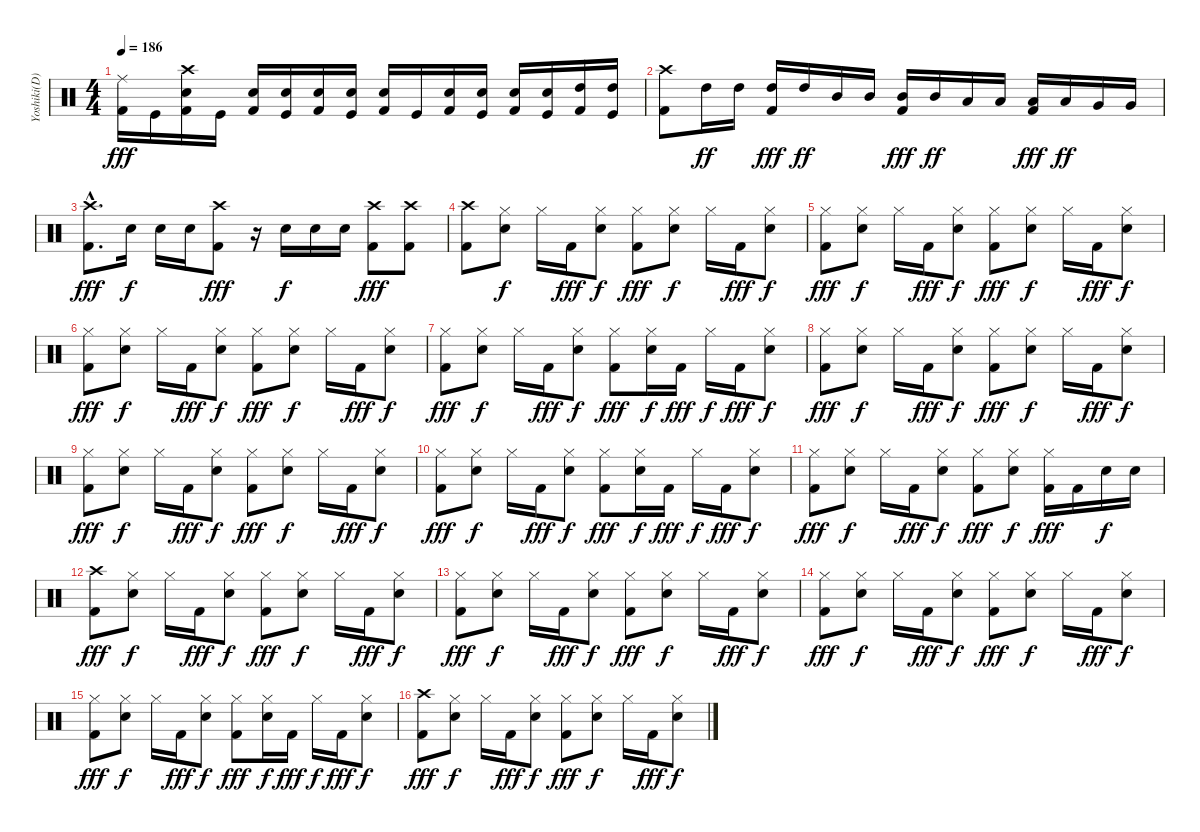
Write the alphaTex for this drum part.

\track ("Yoshiki(D)" "Yoshiki(D)") {instrument percussion}
\staff {score}
\articulation defaults
\ts (4 4)
\tempo 186
\clef neutral
\ks c
("Ride (middle)" "Kick (hit) 2").16{dy fff} "Kick (hit)".16 ("Crash high (hit)" "Electric Snare (hit)" "Kick (hit) 2").16 "Kick (hit)".16 ("Electric Snare (hit)" "Kick (hit) 2").16 ("Electric Snare (hit)" "Kick (hit)").16 ("Electric Snare (hit)" "Kick (hit) 2").16 ("Electric Snare (hit)" "Kick (hit)").16 ("Electric Snare (hit)" "Kick (hit) 2").16 "Kick (hit)".16 ("Electric Snare (hit)" "Kick (hit) 2").16 ("Electric Snare (hit)" "Kick (hit)").16 ("Electric Snare (hit)" "Kick (hit) 2").16 ("Electric Snare (hit)" "Kick (hit)").16 ("High Tom (hit)" "Kick (hit) 2").16 ("High Tom (hit)" "Kick (hit)").16 |
("Crash high (hit)" "Kick (hit) 2").8 "High Tom (hit)".16{dy ff} "High Tom (hit)".16 ("High Tom (hit)" "Kick (hit) 2").16{dy fff} "High Tom (hit)".16{dy ff} "Mid Tom (hit)".16 "Mid Tom (hit)".16 ("Mid Tom (hit)" "Kick (hit) 2").16{dy fff} "Mid Tom (hit)".16{dy ff} "Low Tom (hit)".16 "Low Tom (hit)".16 ("Low Tom (hit)" "Kick (hit) 2").16{dy fff} "Low Tom (hit)".16{dy ff} "Very Low Tom (hit)".16 "Very Low Tom (hit)".16 |
("Crash high (hit)"{hac} "Kick (hit) 2"{hac}).8{d dy fff} "Electric Snare (hit)".16{dy f} "Electric Snare (hit)".16 "Electric Snare (hit)".16 ("Crash high (hit)" "Kick (hit) 2").8{dy fff} r.16 "Electric Snare (hit)".16{dy f} "Electric Snare (hit)".16 "Electric Snare (hit)".16 ("Crash high (hit)" "Kick (hit) 2").8{dy fff} ("Crash high (hit)" "Kick (hit) 2").8 |
("Crash high (hit)" "Kick (hit) 2").8 ("Hi-Hat (closed)" "Electric Snare (hit)").8{dy f} "Hi-Hat (closed)".16 "Kick (hit) 2".16{dy fff} ("Hi-Hat (closed)" "Electric Snare (hit)").8{dy f} ("Hi-Hat (closed)" "Kick (hit) 2").8{dy fff} ("Hi-Hat (closed)" "Electric Snare (hit)").8{dy f} "Hi-Hat (closed)".16 "Kick (hit) 2".16{dy fff} ("Hi-Hat (closed)" "Electric Snare (hit)").8{dy f} |
("Hi-Hat (closed)" "Kick (hit) 2").8{dy fff} ("Hi-Hat (closed)" "Electric Snare (hit)").8{dy f} "Hi-Hat (closed)".16 "Kick (hit) 2".16{dy fff} ("Hi-Hat (closed)" "Electric Snare (hit)").8{dy f} ("Hi-Hat (closed)" "Kick (hit) 2").8{dy fff} ("Hi-Hat (closed)" "Electric Snare (hit)").8{dy f} "Hi-Hat (closed)".16 "Kick (hit) 2".16{dy fff} ("Hi-Hat (closed)" "Electric Snare (hit)").8{dy f} |
("Hi-Hat (closed)" "Kick (hit) 2").8{dy fff} ("Hi-Hat (closed)" "Electric Snare (hit)").8{dy f} "Hi-Hat (closed)".16 "Kick (hit) 2".16{dy fff} ("Hi-Hat (closed)" "Electric Snare (hit)").8{dy f} ("Hi-Hat (closed)" "Kick (hit) 2").8{dy fff} ("Hi-Hat (closed)" "Electric Snare (hit)").8{dy f} "Hi-Hat (closed)".16 "Kick (hit) 2".16{dy fff} ("Hi-Hat (closed)" "Electric Snare (hit)").8{dy f} |
("Hi-Hat (closed)" "Kick (hit) 2").8{dy fff} ("Hi-Hat (closed)" "Electric Snare (hit)").8{dy f} "Hi-Hat (closed)".16 "Kick (hit) 2".16{dy fff} ("Hi-Hat (closed)" "Electric Snare (hit)").8{dy f} ("Hi-Hat (closed)" "Kick (hit) 2").8{dy fff} ("Hi-Hat (closed)" "Electric Snare (hit)").16{dy f} "Kick (hit) 2".16{dy fff} "Hi-Hat (closed)".16{dy f} "Kick (hit) 2".16{dy fff} ("Hi-Hat (closed)" "Electric Snare (hit)").8{dy f} |
("Hi-Hat (closed)" "Kick (hit) 2").8{dy fff} ("Hi-Hat (closed)" "Electric Snare (hit)").8{dy f} "Hi-Hat (closed)".16 "Kick (hit) 2".16{dy fff} ("Hi-Hat (closed)" "Electric Snare (hit)").8{dy f} ("Hi-Hat (closed)" "Kick (hit) 2").8{dy fff} ("Hi-Hat (closed)" "Electric Snare (hit)").8{dy f} "Hi-Hat (closed)".16 "Kick (hit) 2".16{dy fff} ("Hi-Hat (closed)" "Electric Snare (hit)").8{dy f} |
("Hi-Hat (closed)" "Kick (hit) 2").8{dy fff} ("Hi-Hat (closed)" "Electric Snare (hit)").8{dy f} "Hi-Hat (closed)".16 "Kick (hit) 2".16{dy fff} ("Hi-Hat (closed)" "Electric Snare (hit)").8{dy f} ("Hi-Hat (closed)" "Kick (hit) 2").8{dy fff} ("Hi-Hat (closed)" "Electric Snare (hit)").8{dy f} "Hi-Hat (closed)".16 "Kick (hit) 2".16{dy fff} ("Hi-Hat (closed)" "Electric Snare (hit)").8{dy f} |
("Hi-Hat (closed)" "Kick (hit) 2").8{dy fff} ("Hi-Hat (closed)" "Electric Snare (hit)").8{dy f} "Hi-Hat (closed)".16 "Kick (hit) 2".16{dy fff} ("Hi-Hat (closed)" "Electric Snare (hit)").8{dy f} ("Hi-Hat (closed)" "Kick (hit) 2").8{dy fff} ("Hi-Hat (closed)" "Electric Snare (hit)").16{dy f} "Kick (hit) 2".16{dy fff} "Hi-Hat (closed)".16{dy f} "Kick (hit) 2".16{dy fff} ("Hi-Hat (closed)" "Electric Snare (hit)").8{dy f} |
("Hi-Hat (closed)" "Kick (hit) 2").8{dy fff} ("Hi-Hat (closed)" "Electric Snare (hit)").8{dy f} "Hi-Hat (closed)".16 "Kick (hit) 2".16{dy fff} ("Hi-Hat (closed)" "Electric Snare (hit)").8{dy f} ("Hi-Hat (closed)" "Kick (hit) 2").8{dy fff} ("Hi-Hat (closed)" "Electric Snare (hit)").8{dy f} ("Hi-Hat (closed)" "Kick (hit) 2").16{dy fff} "Kick (hit) 2".16 "Electric Snare (hit)".16{dy f} "Electric Snare (hit)".16 |
("Crash high (hit)" "Kick (hit) 2").8{dy fff} ("Hi-Hat (closed)" "Electric Snare (hit)").8{dy f} "Hi-Hat (closed)".16 "Kick (hit) 2".16{dy fff} ("Hi-Hat (closed)" "Electric Snare (hit)").8{dy f} ("Hi-Hat (closed)" "Kick (hit) 2").8{dy fff} ("Hi-Hat (closed)" "Electric Snare (hit)").8{dy f} "Hi-Hat (closed)".16 "Kick (hit) 2".16{dy fff} ("Hi-Hat (closed)" "Electric Snare (hit)").8{dy f} |
("Hi-Hat (closed)" "Kick (hit) 2").8{dy fff} ("Hi-Hat (closed)" "Electric Snare (hit)").8{dy f} "Hi-Hat (closed)".16 "Kick (hit) 2".16{dy fff} ("Hi-Hat (closed)" "Electric Snare (hit)").8{dy f} ("Hi-Hat (closed)" "Kick (hit) 2").8{dy fff} ("Hi-Hat (closed)" "Electric Snare (hit)").8{dy f} "Hi-Hat (closed)".16 "Kick (hit) 2".16{dy fff} ("Hi-Hat (closed)" "Electric Snare (hit)").8{dy f} |
("Hi-Hat (closed)" "Kick (hit) 2").8{dy fff} ("Hi-Hat (closed)" "Electric Snare (hit)").8{dy f} "Hi-Hat (closed)".16 "Kick (hit) 2".16{dy fff} ("Hi-Hat (closed)" "Electric Snare (hit)").8{dy f} ("Hi-Hat (closed)" "Kick (hit) 2").8{dy fff} ("Hi-Hat (closed)" "Electric Snare (hit)").8{dy f} "Hi-Hat (closed)".16 "Kick (hit) 2".16{dy fff} ("Hi-Hat (closed)" "Electric Snare (hit)").8{dy f} |
("Hi-Hat (closed)" "Kick (hit) 2").8{dy fff} ("Hi-Hat (closed)" "Electric Snare (hit)").8{dy f} "Hi-Hat (closed)".16 "Kick (hit) 2".16{dy fff} ("Hi-Hat (closed)" "Electric Snare (hit)").8{dy f} ("Hi-Hat (closed)" "Kick (hit) 2").8{dy fff} ("Hi-Hat (closed)" "Electric Snare (hit)").16{dy f} "Kick (hit) 2".16{dy fff} "Hi-Hat (closed)".16{dy f} "Kick (hit) 2".16{dy fff} ("Hi-Hat (closed)" "Electric Snare (hit)").8{dy f} |
("Crash high (hit)" "Kick (hit) 2").8{dy fff} ("Hi-Hat (closed)" "Electric Snare (hit)").8{dy f} "Hi-Hat (closed)".16 "Kick (hit) 2".16{dy fff} ("Hi-Hat (closed)" "Electric Snare (hit)").8{dy f} ("Hi-Hat (closed)" "Kick (hit) 2").8{dy fff} ("Hi-Hat (closed)" "Electric Snare (hit)").8{dy f} "Hi-Hat (closed)".16 "Kick (hit) 2".16{dy fff} ("Hi-Hat (closed)" "Electric Snare (hit)").8{dy f}
